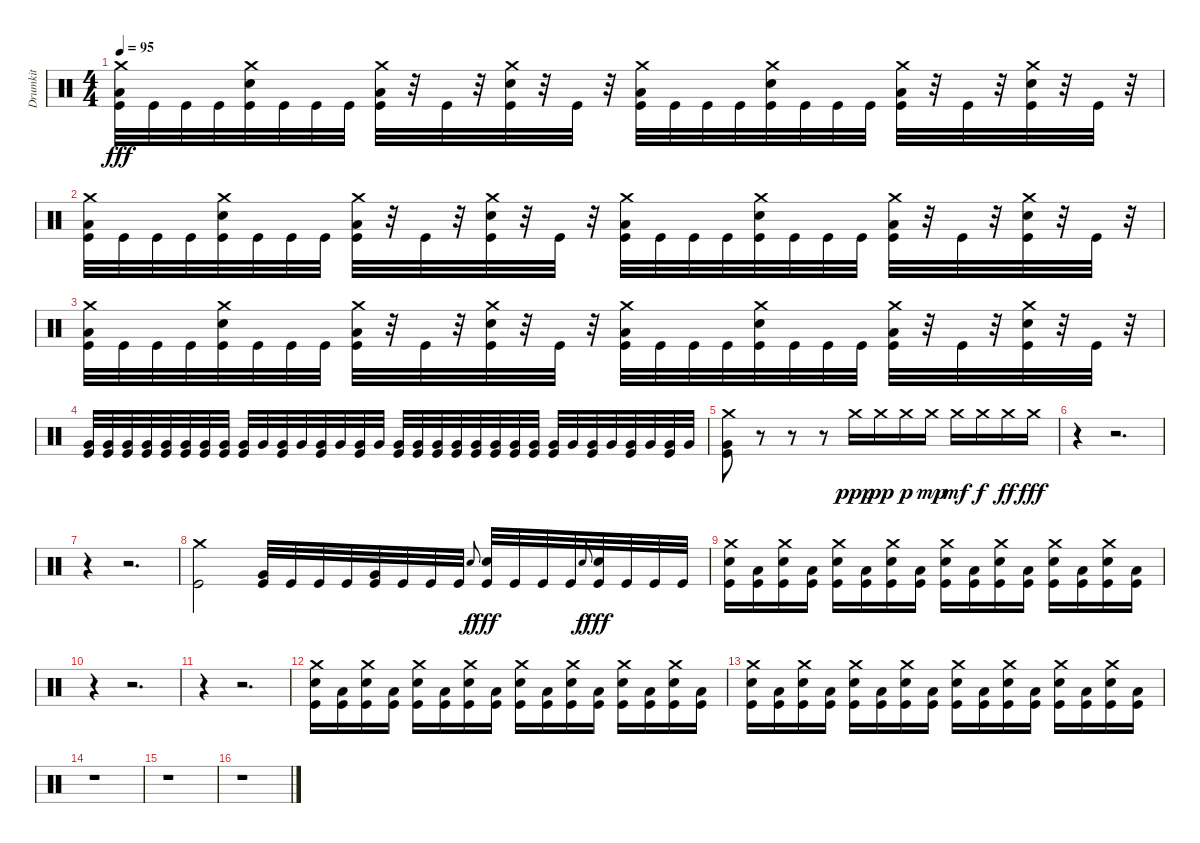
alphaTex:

\track ("Drumkit" "Drumkit") {instrument percussion}
\staff {score}
\articulation defaults
\ts (4 4)
\tempo 95
\clef neutral
\ks c
("Crash medium (hit)" "Low Floor Tom (hit)" "Kick (hit)").32{dy fff} "Kick (hit)".32 "Kick (hit)".32 "Kick (hit)".32 ("Crash medium (hit)" "Snare (hit) 2" "Kick (hit)").32 "Kick (hit)".32 "Kick (hit)".32 "Kick (hit)".32 ("Crash medium (hit)" "Low Floor Tom (hit)" "Kick (hit)").32 r.32 "Kick (hit)".32 r.32 ("Crash medium (hit)" "Snare (hit) 2" "Kick (hit)").32 r.32 "Kick (hit)".32 r.32 ("Crash medium (hit)" "Low Floor Tom (hit)" "Kick (hit)").32 "Kick (hit)".32 "Kick (hit)".32 "Kick (hit)".32 ("Crash medium (hit)" "Snare (hit) 2" "Kick (hit)").32 "Kick (hit)".32 "Kick (hit)".32 "Kick (hit)".32 ("Crash medium (hit)" "Low Floor Tom (hit)" "Kick (hit)").32 r.32 "Kick (hit)".32 r.32 ("Crash medium (hit)" "Snare (hit) 2" "Kick (hit)").32 r.32 "Kick (hit)".32 r.32 |
("Crash medium (hit)" "Low Floor Tom (hit)" "Kick (hit)").32 "Kick (hit)".32 "Kick (hit)".32 "Kick (hit)".32 ("Crash medium (hit)" "Snare (hit) 2" "Kick (hit)").32 "Kick (hit)".32 "Kick (hit)".32 "Kick (hit)".32 ("Crash medium (hit)" "Low Floor Tom (hit)" "Kick (hit)").32 r.32 "Kick (hit)".32 r.32 ("Crash medium (hit)" "Snare (hit) 2" "Kick (hit)").32 r.32 "Kick (hit)".32 r.32 ("Crash medium (hit)" "Low Floor Tom (hit)" "Kick (hit)").32 "Kick (hit)".32 "Kick (hit)".32 "Kick (hit)".32 ("Crash medium (hit)" "Snare (hit) 2" "Kick (hit)").32 "Kick (hit)".32 "Kick (hit)".32 "Kick (hit)".32 ("Crash medium (hit)" "Low Floor Tom (hit)" "Kick (hit)").32 r.32 "Kick (hit)".32 r.32 ("Crash medium (hit)" "Snare (hit) 2" "Kick (hit)").32 r.32 "Kick (hit)".32 r.32 |
("Crash medium (hit)" "Low Floor Tom (hit)" "Kick (hit)").32 "Kick (hit)".32 "Kick (hit)".32 "Kick (hit)".32 ("Crash medium (hit)" "Snare (hit) 2" "Kick (hit)").32 "Kick (hit)".32 "Kick (hit)".32 "Kick (hit)".32 ("Crash medium (hit)" "Low Floor Tom (hit)" "Kick (hit)").32 r.32 "Kick (hit)".32 r.32 ("Crash medium (hit)" "Snare (hit) 2" "Kick (hit)").32 r.32 "Kick (hit)".32 r.32 ("Crash medium (hit)" "Low Floor Tom (hit)" "Kick (hit)").32 "Kick (hit)".32 "Kick (hit)".32 "Kick (hit)".32 ("Crash medium (hit)" "Snare (hit) 2" "Kick (hit)").32 "Kick (hit)".32 "Kick (hit)".32 "Kick (hit)".32 ("Crash medium (hit)" "Low Floor Tom (hit)" "Kick (hit)").32 r.32 "Kick (hit)".32 r.32 ("Crash medium (hit)" "Snare (hit) 2" "Kick (hit)").32 r.32 "Kick (hit)".32 r.32 |
("Very Low Tom (hit)" "Kick (hit)").32 ("Very Low Tom (hit)" "Kick (hit)").32 ("Very Low Tom (hit)" "Kick (hit)").32 ("Very Low Tom (hit)" "Kick (hit)").32 ("Very Low Tom (hit)" "Kick (hit)").32 ("Very Low Tom (hit)" "Kick (hit)").32 ("Very Low Tom (hit)" "Kick (hit)").32 ("Very Low Tom (hit)" "Kick (hit)").32 ("Very Low Tom (hit)" "Kick (hit)").32 "Very Low Tom (hit)".32 ("Very Low Tom (hit)" "Kick (hit)").32 "Very Low Tom (hit)".32 ("Very Low Tom (hit)" "Kick (hit)").32 "Very Low Tom (hit)".32 ("Very Low Tom (hit)" "Kick (hit)").32 "Very Low Tom (hit)".32 ("Very Low Tom (hit)" "Kick (hit)").32 ("Very Low Tom (hit)" "Kick (hit)").32 ("Very Low Tom (hit)" "Kick (hit)").32 ("Very Low Tom (hit)" "Kick (hit)").32 ("Very Low Tom (hit)" "Kick (hit)").32 ("Very Low Tom (hit)" "Kick (hit)").32 ("Very Low Tom (hit)" "Kick (hit)").32 ("Very Low Tom (hit)" "Kick (hit)").32 ("Very Low Tom (hit)" "Kick (hit)").32 "Very Low Tom (hit)".32 ("Very Low Tom (hit)" "Kick (hit)").32 "Very Low Tom (hit)".32 ("Very Low Tom (hit)" "Kick (hit)").32 "Very Low Tom (hit)".32 ("Very Low Tom (hit)" "Kick (hit)").32 "Very Low Tom (hit)".32 |
("Crash medium (hit)" "Very Low Tom (hit)" "Kick (hit)").8 r.8 r.8 r.8 "Crash medium (hit)".16{dy ppp} "Crash medium (hit)".16{dy pp} "Crash medium (hit)".16{dy p} "Crash medium (hit)".16{dy mp} "Crash medium (hit)".16{dy mf} "Crash medium (hit)".16{dy f} "Crash medium (hit)".16{dy ff} "Crash medium (hit)".16{dy fff} |
r.4 r.2{d} |
r.4 r.2{d} |
("Crash medium (hit)" "Kick (hit)").2 ("Very Low Tom (hit)" "Kick (hit)").32 "Kick (hit)".32 "Kick (hit)".32 "Kick (hit)".32 ("Very Low Tom (hit)" "Kick (hit)").32 "Kick (hit)".32 "Kick (hit)".32 "Kick (hit)".32 "Snare (hit)".8{gr onbeat dy f} ("Snare (hit) 2" "Kick (hit)").32{dy fff} "Kick (hit)".32 "Kick (hit)".32 "Kick (hit)".32 "Snare (hit)".8{gr onbeat dy f} ("Snare (hit) 2" "Kick (hit)").32{dy fff} "Kick (hit)".32 "Kick (hit)".32 "Kick (hit)".32 |
("Crash medium (hit)" "Snare (hit) 2" "Kick (hit)").16 ("Low Floor Tom (hit)" "Kick (hit)").16 ("Crash medium (hit)" "Snare (hit) 2" "Kick (hit)").16 ("Low Floor Tom (hit)" "Kick (hit)").16 ("Crash medium (hit)" "Snare (hit) 2" "Kick (hit)").16 ("Low Floor Tom (hit)" "Kick (hit)").16 ("Crash medium (hit)" "Snare (hit) 2" "Kick (hit)").16 ("Low Floor Tom (hit)" "Kick (hit)").16 ("Crash medium (hit)" "Snare (hit) 2" "Kick (hit)").16 ("Low Floor Tom (hit)" "Kick (hit)").16 ("Crash medium (hit)" "Snare (hit) 2" "Kick (hit)").16 ("Low Floor Tom (hit)" "Kick (hit)").16 ("Crash medium (hit)" "Snare (hit) 2" "Kick (hit)").16 ("Low Floor Tom (hit)" "Kick (hit)").16 ("Crash medium (hit)" "Snare (hit) 2" "Kick (hit)").16 ("Low Floor Tom (hit)" "Kick (hit)").16 |
r.4 r.2{d} |
r.4 r.2{d} |
("Crash medium (hit)" "Snare (hit) 2" "Kick (hit)").16 ("Low Floor Tom (hit)" "Kick (hit)").16 ("Crash medium (hit)" "Snare (hit) 2" "Kick (hit)").16 ("Low Floor Tom (hit)" "Kick (hit)").16 ("Crash medium (hit)" "Snare (hit) 2" "Kick (hit)").16 ("Low Floor Tom (hit)" "Kick (hit)").16 ("Crash medium (hit)" "Snare (hit) 2" "Kick (hit)").16 ("Low Floor Tom (hit)" "Kick (hit)").16 ("Crash medium (hit)" "Snare (hit) 2" "Kick (hit)").16 ("Low Floor Tom (hit)" "Kick (hit)").16 ("Crash medium (hit)" "Snare (hit) 2" "Kick (hit)").16 ("Low Floor Tom (hit)" "Kick (hit)").16 ("Crash medium (hit)" "Snare (hit) 2" "Kick (hit)").16 ("Low Floor Tom (hit)" "Kick (hit)").16 ("Crash medium (hit)" "Snare (hit) 2" "Kick (hit)").16 ("Low Floor Tom (hit)" "Kick (hit)").16 |
("Crash medium (hit)" "Snare (hit) 2" "Kick (hit)").16 ("Low Floor Tom (hit)" "Kick (hit)").16 ("Crash medium (hit)" "Snare (hit) 2" "Kick (hit)").16 ("Low Floor Tom (hit)" "Kick (hit)").16 ("Crash medium (hit)" "Snare (hit) 2" "Kick (hit)").16 ("Low Floor Tom (hit)" "Kick (hit)").16 ("Crash medium (hit)" "Snare (hit) 2" "Kick (hit)").16 ("Low Floor Tom (hit)" "Kick (hit)").16 ("Crash medium (hit)" "Snare (hit) 2" "Kick (hit)").16 ("Low Floor Tom (hit)" "Kick (hit)").16 ("Crash medium (hit)" "Snare (hit) 2" "Kick (hit)").16 ("Low Floor Tom (hit)" "Kick (hit)").16 ("Crash medium (hit)" "Snare (hit) 2" "Kick (hit)").16 ("Low Floor Tom (hit)" "Kick (hit)").16 ("Crash medium (hit)" "Snare (hit) 2" "Kick (hit)").16 ("Low Floor Tom (hit)" "Kick (hit)").16 |
r.1 |
r.1 |
r.1
